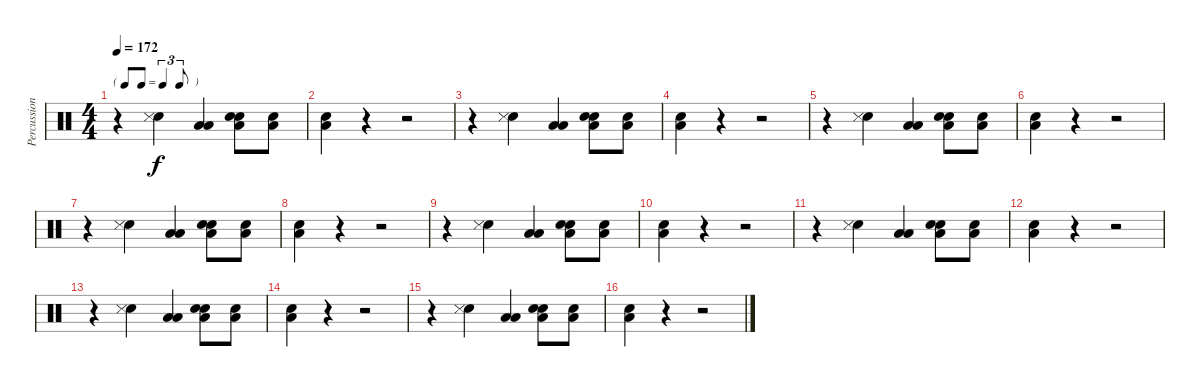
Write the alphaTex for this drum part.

\track ("Percussions" "Percussion") {instrument percussion}
\staff {score}
\articulation defaults
\ts (4 4)
\tf triplet8th
\tempo 172
\clef neutral
\ks c
r.4{dy f} ("Snare (hit) 2" "Snare (side stick) 3").4 ("Low Floor Tom (hit)" "Low Tom (hit)").4 ("Low Tom (hit)" "Snare (hit) 2" "Snare (hit) 2").8 ("Snare (hit) 2" "Low Tom (hit)").8 |
("Low Floor Tom (hit)" "Snare (hit) 2").4 r.4 r.2 |
r.4 ("Snare (hit) 2" "Snare (side stick) 3").4 ("Low Floor Tom (hit)" "Low Tom (hit)").4 ("Low Tom (hit)" "Snare (hit) 2" "Snare (hit) 2").8 ("Snare (hit) 2" "Low Tom (hit)").8 |
("Low Floor Tom (hit)" "Snare (hit) 2").4 r.4 r.2 |
r.4 ("Snare (hit) 2" "Snare (side stick) 3").4 ("Low Floor Tom (hit)" "Low Tom (hit)").4 ("Low Tom (hit)" "Snare (hit) 2" "Snare (hit) 2").8 ("Snare (hit) 2" "Low Tom (hit)").8 |
("Low Floor Tom (hit)" "Snare (hit) 2").4 r.4 r.2 |
r.4 ("Snare (hit) 2" "Snare (side stick) 3").4 ("Low Floor Tom (hit)" "Low Tom (hit)").4 ("Low Tom (hit)" "Snare (hit) 2" "Snare (hit) 2").8 ("Snare (hit) 2" "Low Tom (hit)").8 |
("Low Floor Tom (hit)" "Snare (hit) 2").4 r.4 r.2 |
r.4 ("Snare (hit) 2" "Snare (side stick) 3").4 ("Low Floor Tom (hit)" "Low Tom (hit)").4 ("Low Tom (hit)" "Snare (hit) 2" "Snare (hit) 2").8 ("Snare (hit) 2" "Low Tom (hit)").8 |
("Low Floor Tom (hit)" "Snare (hit) 2").4 r.4 r.2 |
r.4 ("Snare (hit) 2" "Snare (side stick) 3").4 ("Low Floor Tom (hit)" "Low Tom (hit)").4 ("Low Tom (hit)" "Snare (hit) 2" "Snare (hit) 2").8 ("Snare (hit) 2" "Low Tom (hit)").8 |
("Low Floor Tom (hit)" "Snare (hit) 2").4 r.4 r.2 |
r.4 ("Snare (hit) 2" "Snare (side stick) 3").4 ("Low Floor Tom (hit)" "Low Tom (hit)").4 ("Low Tom (hit)" "Snare (hit) 2" "Snare (hit) 2").8 ("Snare (hit) 2" "Low Tom (hit)").8 |
("Low Floor Tom (hit)" "Snare (hit) 2").4 r.4 r.2 |
r.4 ("Snare (hit) 2" "Snare (side stick) 3").4 ("Low Floor Tom (hit)" "Low Tom (hit)").4 ("Low Tom (hit)" "Snare (hit) 2" "Snare (hit) 2").8 ("Snare (hit) 2" "Low Tom (hit)").8 |
("Low Floor Tom (hit)" "Snare (hit) 2").4 r.4 r.2
